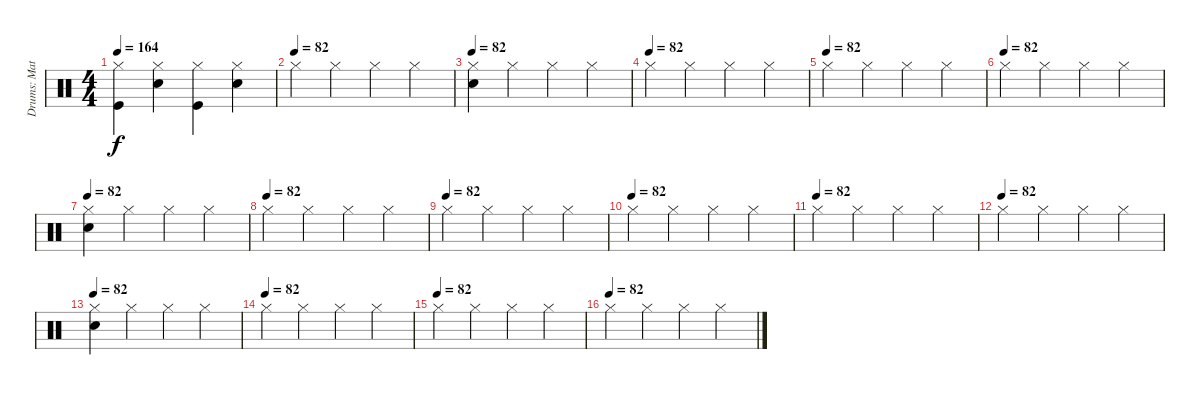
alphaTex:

\track ("Drums: Matt" "Drums: Mat") {instrument percussion}
\staff {score}
\articulation defaults
\ts (4 4)
\tempo 164
\clef neutral
\ks c
("Hi-Hat (closed)" "Kick (hit)").4{dy f} ("Hi-Hat (closed)" "Snare (hit) 2").4 ("Hi-Hat (closed)" "Kick (hit)").4 ("Hi-Hat (closed)" "Snare (hit) 2").4 |
\tempo (82)
"Hi-Hat (closed)".4 "Hi-Hat (closed)".4 "Hi-Hat (closed)".4 "Hi-Hat (closed)".4 |
\tempo 82
("Electric Snare (hit)" "Hi-Hat (closed)").4 "Hi-Hat (closed)".4 "Hi-Hat (closed)".4 "Hi-Hat (closed)".4 |
\tempo (82)
"Hi-Hat (closed)".4 "Hi-Hat (closed)".4 "Hi-Hat (closed)".4 "Hi-Hat (closed)".4 |
\tempo (82)
"Hi-Hat (closed)".4 "Hi-Hat (closed)".4 "Hi-Hat (closed)".4 "Hi-Hat (closed)".4 |
\tempo (82)
"Hi-Hat (closed)".4 "Hi-Hat (closed)".4 "Hi-Hat (closed)".4 "Hi-Hat (closed)".4 |
\tempo 82
("Electric Snare (hit)" "Hi-Hat (closed)").4 "Hi-Hat (closed)".4 "Hi-Hat (closed)".4 "Hi-Hat (closed)".4 |
\tempo (82)
"Hi-Hat (closed)".4 "Hi-Hat (closed)".4 "Hi-Hat (closed)".4 "Hi-Hat (closed)".4 |
\tempo (82)
"Hi-Hat (closed)".4 "Hi-Hat (closed)".4 "Hi-Hat (closed)".4 "Hi-Hat (closed)".4 |
\tempo (82)
"Hi-Hat (closed)".4 "Hi-Hat (closed)".4 "Hi-Hat (closed)".4 "Hi-Hat (closed)".4 |
\tempo (82)
"Hi-Hat (closed)".4 "Hi-Hat (closed)".4 "Hi-Hat (closed)".4 "Hi-Hat (closed)".4 |
\tempo (82)
"Hi-Hat (closed)".4 "Hi-Hat (closed)".4 "Hi-Hat (closed)".4 "Hi-Hat (closed)".4 |
\tempo 82
("Electric Snare (hit)" "Hi-Hat (closed)").4 "Hi-Hat (closed)".4 "Hi-Hat (closed)".4 "Hi-Hat (closed)".4 |
\tempo (82)
"Hi-Hat (closed)".4 "Hi-Hat (closed)".4 "Hi-Hat (closed)".4 "Hi-Hat (closed)".4 |
\tempo (82)
"Hi-Hat (closed)".4 "Hi-Hat (closed)".4 "Hi-Hat (closed)".4 "Hi-Hat (closed)".4 |
\tempo (82)
"Hi-Hat (closed)".4 "Hi-Hat (closed)".4 "Hi-Hat (closed)".4 "Hi-Hat (closed)".4
